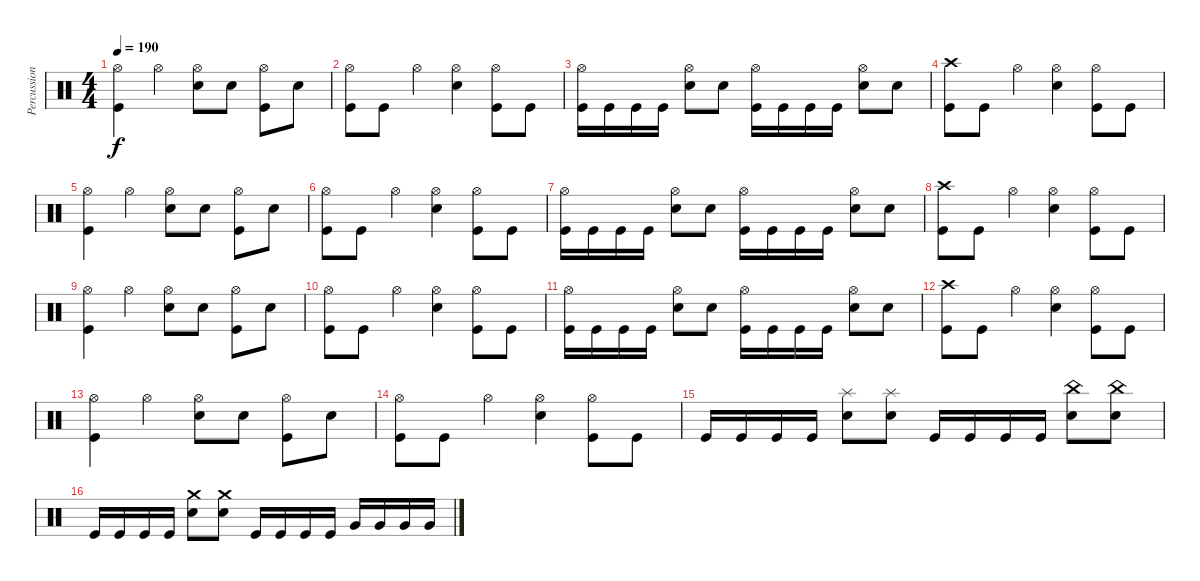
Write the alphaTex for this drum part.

\track ("Percussion" "Percussion") {instrument percussion}
\staff {score}
\articulation defaults
\ts (4 4)
\tempo 190
\clef neutral
\ks c
("Hi-Hat (open)" "Kick (hit)").4{dy f} "Hi-Hat (open)".4 ("Hi-Hat (open)" "Snare (hit) 2").8 "Snare (hit) 2".8 ("Hi-Hat (open)" "Kick (hit)").8 "Snare (hit) 2".8 |
("Hi-Hat (open)" "Kick (hit)").8 "Kick (hit)".8 "Hi-Hat (open)".4 ("Hi-Hat (open)" "Snare (hit) 2").4 ("Hi-Hat (open)" "Kick (hit)").8 "Kick (hit)".8 |
("Hi-Hat (open)" "Kick (hit)").16 "Kick (hit)".16 "Kick (hit)".16 "Kick (hit)".16 ("Hi-Hat (open)" "Snare (hit) 2").8 "Snare (hit) 2".8 ("Hi-Hat (open)" "Kick (hit)").16 "Kick (hit)".16 "Kick (hit)".16 "Kick (hit)".16 ("Hi-Hat (open)" "Snare (hit) 2").8 "Snare (hit) 2".8 |
("Crash high (hit)" "Kick (hit)").8 "Kick (hit)".8 "Hi-Hat (open)".4 ("Hi-Hat (open)" "Snare (hit) 2").4 ("Hi-Hat (open)" "Kick (hit)").8 "Kick (hit)".8 |
("Hi-Hat (open)" "Kick (hit)").4 "Hi-Hat (open)".4 ("Hi-Hat (open)" "Snare (hit) 2").8 "Snare (hit) 2".8 ("Hi-Hat (open)" "Kick (hit)").8 "Snare (hit) 2".8 |
("Hi-Hat (open)" "Kick (hit)").8 "Kick (hit)".8 "Hi-Hat (open)".4 ("Hi-Hat (open)" "Snare (hit) 2").4 ("Hi-Hat (open)" "Kick (hit)").8 "Kick (hit)".8 |
("Hi-Hat (open)" "Kick (hit)").16 "Kick (hit)".16 "Kick (hit)".16 "Kick (hit)".16 ("Hi-Hat (open)" "Snare (hit) 2").8 "Snare (hit) 2".8 ("Hi-Hat (open)" "Kick (hit)").16 "Kick (hit)".16 "Kick (hit)".16 "Kick (hit)".16 ("Hi-Hat (open)" "Snare (hit) 2").8 "Snare (hit) 2".8 |
("Crash high (hit)" "Kick (hit)").8 "Kick (hit)".8 "Hi-Hat (open)".4 ("Hi-Hat (open)" "Snare (hit) 2").4 ("Hi-Hat (open)" "Kick (hit)").8 "Kick (hit)".8 |
("Hi-Hat (open)" "Kick (hit)").4 "Hi-Hat (open)".4 ("Hi-Hat (open)" "Snare (hit) 2").8 "Snare (hit) 2".8 ("Hi-Hat (open)" "Kick (hit)").8 "Snare (hit) 2".8 |
("Hi-Hat (open)" "Kick (hit)").8 "Kick (hit)".8 "Hi-Hat (open)".4 ("Hi-Hat (open)" "Snare (hit) 2").4 ("Hi-Hat (open)" "Kick (hit)").8 "Kick (hit)".8 |
("Hi-Hat (open)" "Kick (hit)").16 "Kick (hit)".16 "Kick (hit)".16 "Kick (hit)".16 ("Hi-Hat (open)" "Snare (hit) 2").8 "Snare (hit) 2".8 ("Hi-Hat (open)" "Kick (hit)").16 "Kick (hit)".16 "Kick (hit)".16 "Kick (hit)".16 ("Hi-Hat (open)" "Snare (hit) 2").8 "Snare (hit) 2".8 |
("Crash high (hit)" "Kick (hit)").8 "Kick (hit)".8 "Hi-Hat (open)".4 ("Hi-Hat (open)" "Snare (hit) 2").4 ("Hi-Hat (open)" "Kick (hit)").8 "Kick (hit)".8 |
("Hi-Hat (open)" "Kick (hit)").4 "Hi-Hat (open)".4 ("Hi-Hat (open)" "Snare (hit) 2").8 "Snare (hit) 2".8 ("Hi-Hat (open)" "Kick (hit)").8 "Snare (hit) 2".8 |
("Hi-Hat (open)" "Kick (hit)").8 "Kick (hit)".8 "Hi-Hat (open)".4 ("Hi-Hat (open)" "Snare (hit) 2").4 ("Hi-Hat (open)" "Kick (hit)").8 "Kick (hit)".8 |
"Kick (hit)".16 "Kick (hit)".16 "Kick (hit)".16 "Kick (hit)".16 ("Splash (hit)" "Snare (hit) 2").8 ("Splash (hit)" "Snare (hit) 2").8 "Kick (hit)".16 "Kick (hit)".16 "Kick (hit)".16 "Kick (hit)".16 ("China (hit)" "Snare (hit) 2").8 ("China (hit)" "Snare (hit) 2").8 |
"Kick (hit)".16 "Kick (hit)".16 "Kick (hit)".16 "Kick (hit)".16 ("Crash medium (hit)" "Snare (hit) 2").8 ("Crash medium (hit)" "Snare (hit) 2").8 "Kick (hit)".16 "Kick (hit)".16 "Kick (hit)".16 "Kick (hit)".16 "Very Low Tom (hit)".16 "Very Low Tom (hit)".16 "Very Low Tom (hit)".16 "Very Low Tom (hit)".16
